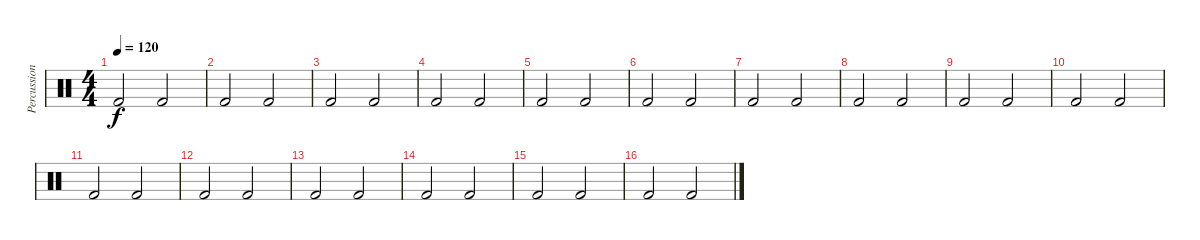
\track ("Percussion" "Percussion") {mute instrument percussion}
\staff {score}
\articulation defaults
\ts (4 4)
\tempo 120
\clef neutral
\ks c "Kick (hit) 2".2{dy f} "Kick (hit) 2".2
|
"Kick (hit) 2".2 "Kick (hit) 2".2 |
"Kick (hit) 2".2 "Kick (hit) 2".2 |
"Kick (hit) 2".2 "Kick (hit) 2".2 |
"Kick (hit) 2".2 "Kick (hit) 2".2 |
"Kick (hit) 2".2 "Kick (hit) 2".2 |
"Kick (hit) 2".2 "Kick (hit) 2".2 |
"Kick (hit) 2".2 "Kick (hit) 2".2 |
"Kick (hit) 2".2 "Kick (hit) 2".2 |
"Kick (hit) 2".2 "Kick (hit) 2".2 |
"Kick (hit) 2".2 "Kick (hit) 2".2 |
"Kick (hit) 2".2 "Kick (hit) 2".2 |
"Kick (hit) 2".2 "Kick (hit) 2".2 |
"Kick (hit) 2".2 "Kick (hit) 2".2 |
"Kick (hit) 2".2 "Kick (hit) 2".2 |
"Kick (hit) 2".2 "Kick (hit) 2".2
